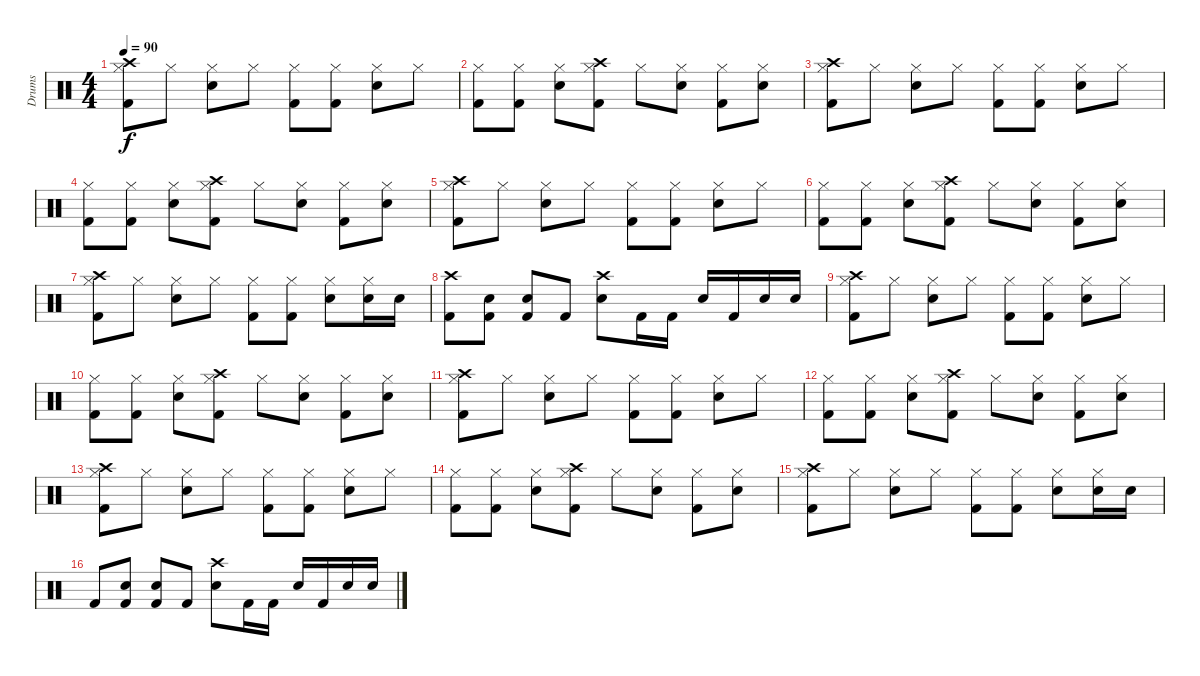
\track ("Drums" "Drums") {instrument percussion}
\staff {score}
\articulation defaults
\ts (4 4)
\tempo 90
\clef neutral
\ks c
("Crash high (hit)" "Hi-Hat (closed)" "Kick (hit) 2").8{dy f} "Hi-Hat (closed)".8 ("Hi-Hat (closed)" "Electric Snare (hit)").8 "Hi-Hat (closed)".8 ("Hi-Hat (closed)" "Kick (hit) 2").8 ("Hi-Hat (closed)" "Kick (hit) 2").8 ("Hi-Hat (closed)" "Electric Snare (hit)").8 "Hi-Hat (closed)".8 |
("Hi-Hat (closed)" "Kick (hit) 2").8 ("Hi-Hat (closed)" "Kick (hit) 2").8 ("Hi-Hat (closed)" "Electric Snare (hit)").8 ("Crash high (hit)" "Hi-Hat (closed)" "Kick (hit) 2").8 "Hi-Hat (closed)".8 ("Hi-Hat (closed)" "Electric Snare (hit)").8 ("Hi-Hat (closed)" "Kick (hit) 2").8 ("Hi-Hat (closed)" "Electric Snare (hit)").8 |
("Crash high (hit)" "Hi-Hat (closed)" "Kick (hit) 2").8 "Hi-Hat (closed)".8 ("Hi-Hat (closed)" "Electric Snare (hit)").8 "Hi-Hat (closed)".8 ("Hi-Hat (closed)" "Kick (hit) 2").8 ("Hi-Hat (closed)" "Kick (hit) 2").8 ("Hi-Hat (closed)" "Electric Snare (hit)").8 "Hi-Hat (closed)".8 |
("Hi-Hat (closed)" "Kick (hit) 2").8 ("Hi-Hat (closed)" "Kick (hit) 2").8 ("Hi-Hat (closed)" "Electric Snare (hit)").8 ("Crash high (hit)" "Hi-Hat (closed)" "Kick (hit) 2").8 "Hi-Hat (closed)".8 ("Hi-Hat (closed)" "Electric Snare (hit)").8 ("Hi-Hat (closed)" "Kick (hit) 2").8 ("Hi-Hat (closed)" "Electric Snare (hit)").8 |
("Crash high (hit)" "Hi-Hat (closed)" "Kick (hit) 2").8 "Hi-Hat (closed)".8 ("Hi-Hat (closed)" "Electric Snare (hit)").8 "Hi-Hat (closed)".8 ("Hi-Hat (closed)" "Kick (hit) 2").8 ("Hi-Hat (closed)" "Kick (hit) 2").8 ("Hi-Hat (closed)" "Electric Snare (hit)").8 "Hi-Hat (closed)".8 |
("Hi-Hat (closed)" "Kick (hit) 2").8 ("Hi-Hat (closed)" "Kick (hit) 2").8 ("Hi-Hat (closed)" "Electric Snare (hit)").8 ("Crash high (hit)" "Hi-Hat (closed)" "Kick (hit) 2").8 "Hi-Hat (closed)".8 ("Hi-Hat (closed)" "Electric Snare (hit)").8 ("Hi-Hat (closed)" "Kick (hit) 2").8 ("Hi-Hat (closed)" "Electric Snare (hit)").8 |
("Crash high (hit)" "Hi-Hat (closed)" "Kick (hit) 2").8 "Hi-Hat (closed)".8 ("Hi-Hat (closed)" "Electric Snare (hit)").8 "Hi-Hat (closed)".8 ("Hi-Hat (closed)" "Kick (hit) 2").8 ("Hi-Hat (closed)" "Kick (hit) 2").8 ("Hi-Hat (closed)" "Electric Snare (hit)").8 ("Electric Snare (hit)" "Hi-Hat (closed)").16 "Electric Snare (hit)".16 |
("Crash high (hit)" "Kick (hit) 2").8 ("Electric Snare (hit)" "Kick (hit) 2").8 ("Electric Snare (hit)" "Kick (hit) 2").8 "Kick (hit) 2".8 ("Crash high (hit)" "Electric Snare (hit)").8 "Kick (hit) 2".16 "Kick (hit) 2".16 "Electric Snare (hit)".16 "Kick (hit) 2".16 "Electric Snare (hit)".16 "Electric Snare (hit)".16 |
("Crash high (hit)" "Hi-Hat (closed)" "Kick (hit) 2").8 "Hi-Hat (closed)".8 ("Hi-Hat (closed)" "Electric Snare (hit)").8 "Hi-Hat (closed)".8 ("Hi-Hat (closed)" "Kick (hit) 2").8 ("Hi-Hat (closed)" "Kick (hit) 2").8 ("Hi-Hat (closed)" "Electric Snare (hit)").8 "Hi-Hat (closed)".8 |
("Hi-Hat (closed)" "Kick (hit) 2").8 ("Hi-Hat (closed)" "Kick (hit) 2").8 ("Hi-Hat (closed)" "Electric Snare (hit)").8 ("Crash high (hit)" "Hi-Hat (closed)" "Kick (hit) 2").8 "Hi-Hat (closed)".8 ("Hi-Hat (closed)" "Electric Snare (hit)").8 ("Hi-Hat (closed)" "Kick (hit) 2").8 ("Hi-Hat (closed)" "Electric Snare (hit)").8 |
("Crash high (hit)" "Hi-Hat (closed)" "Kick (hit) 2").8 "Hi-Hat (closed)".8 ("Hi-Hat (closed)" "Electric Snare (hit)").8 "Hi-Hat (closed)".8 ("Hi-Hat (closed)" "Kick (hit) 2").8 ("Hi-Hat (closed)" "Kick (hit) 2").8 ("Hi-Hat (closed)" "Electric Snare (hit)").8 "Hi-Hat (closed)".8 |
("Hi-Hat (closed)" "Kick (hit) 2").8 ("Hi-Hat (closed)" "Kick (hit) 2").8 ("Hi-Hat (closed)" "Electric Snare (hit)").8 ("Crash high (hit)" "Hi-Hat (closed)" "Kick (hit) 2").8 "Hi-Hat (closed)".8 ("Hi-Hat (closed)" "Electric Snare (hit)").8 ("Hi-Hat (closed)" "Kick (hit) 2").8 ("Hi-Hat (closed)" "Electric Snare (hit)").8 |
("Crash high (hit)" "Hi-Hat (closed)" "Kick (hit) 2").8 "Hi-Hat (closed)".8 ("Hi-Hat (closed)" "Electric Snare (hit)").8 "Hi-Hat (closed)".8 ("Hi-Hat (closed)" "Kick (hit) 2").8 ("Hi-Hat (closed)" "Kick (hit) 2").8 ("Hi-Hat (closed)" "Electric Snare (hit)").8 "Hi-Hat (closed)".8 |
("Hi-Hat (closed)" "Kick (hit) 2").8 ("Hi-Hat (closed)" "Kick (hit) 2").8 ("Hi-Hat (closed)" "Electric Snare (hit)").8 ("Crash high (hit)" "Hi-Hat (closed)" "Kick (hit) 2").8 "Hi-Hat (closed)".8 ("Hi-Hat (closed)" "Electric Snare (hit)").8 ("Hi-Hat (closed)" "Kick (hit) 2").8 ("Hi-Hat (closed)" "Electric Snare (hit)").8 |
("Crash high (hit)" "Hi-Hat (closed)" "Kick (hit) 2").8 "Hi-Hat (closed)".8 ("Hi-Hat (closed)" "Electric Snare (hit)").8 "Hi-Hat (closed)".8 ("Hi-Hat (closed)" "Kick (hit) 2").8 ("Hi-Hat (closed)" "Kick (hit) 2").8 ("Hi-Hat (closed)" "Electric Snare (hit)").8 ("Electric Snare (hit)" "Hi-Hat (closed)").16 "Electric Snare (hit)".16 |
"Kick (hit) 2".8 ("Electric Snare (hit)" "Kick (hit) 2").8 ("Electric Snare (hit)" "Kick (hit) 2").8 "Kick (hit) 2".8 ("Crash high (hit)" "Electric Snare (hit)").8 "Kick (hit) 2".16 "Kick (hit) 2".16 "Electric Snare (hit)".16 "Kick (hit) 2".16 "Electric Snare (hit)".16 "Electric Snare (hit)".16
